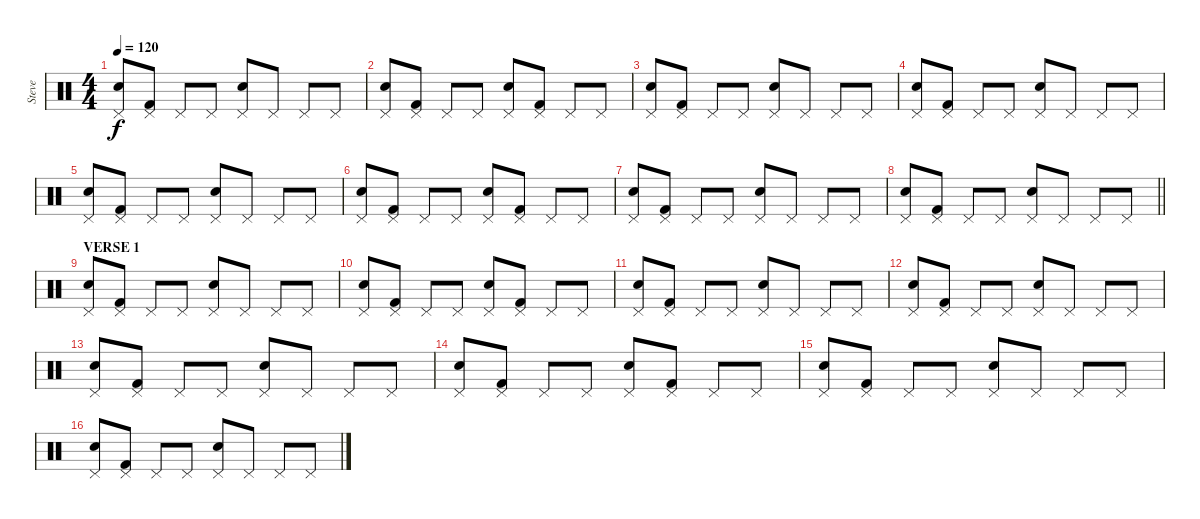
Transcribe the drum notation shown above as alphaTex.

\track ("Steve" "Steve") {instrument percussion}
\staff {score}
\articulation defaults
\ts (4 4)
\tempo 120
\clef neutral
\ks c
("Pedal Hi-Hat (hit)" "Electric Snare (hit)").8{dy f} ("Pedal Hi-Hat (hit)" "Kick (hit) 2").8 "Pedal Hi-Hat (hit)".8 "Pedal Hi-Hat (hit)".8 ("Pedal Hi-Hat (hit)" "Electric Snare (hit)").8 "Pedal Hi-Hat (hit)".8 "Pedal Hi-Hat (hit)".8 "Pedal Hi-Hat (hit)".8 |
("Pedal Hi-Hat (hit)" "Electric Snare (hit)").8 ("Pedal Hi-Hat (hit)" "Kick (hit) 2").8 "Pedal Hi-Hat (hit)".8 "Pedal Hi-Hat (hit)".8 ("Pedal Hi-Hat (hit)" "Electric Snare (hit)").8 ("Pedal Hi-Hat (hit)" "Kick (hit) 2").8 "Pedal Hi-Hat (hit)".8 "Pedal Hi-Hat (hit)".8 |
("Pedal Hi-Hat (hit)" "Electric Snare (hit)").8 ("Pedal Hi-Hat (hit)" "Kick (hit) 2").8 "Pedal Hi-Hat (hit)".8 "Pedal Hi-Hat (hit)".8 ("Pedal Hi-Hat (hit)" "Electric Snare (hit)").8 "Pedal Hi-Hat (hit)".8 "Pedal Hi-Hat (hit)".8 "Pedal Hi-Hat (hit)".8 |
("Pedal Hi-Hat (hit)" "Electric Snare (hit)").8 ("Pedal Hi-Hat (hit)" "Kick (hit) 2").8 "Pedal Hi-Hat (hit)".8 "Pedal Hi-Hat (hit)".8 ("Pedal Hi-Hat (hit)" "Electric Snare (hit)").8 "Pedal Hi-Hat (hit)".8 "Pedal Hi-Hat (hit)".8 "Pedal Hi-Hat (hit)".8 |
("Pedal Hi-Hat (hit)" "Electric Snare (hit)").8 ("Pedal Hi-Hat (hit)" "Kick (hit) 2").8 "Pedal Hi-Hat (hit)".8 "Pedal Hi-Hat (hit)".8 ("Pedal Hi-Hat (hit)" "Electric Snare (hit)").8 "Pedal Hi-Hat (hit)".8 "Pedal Hi-Hat (hit)".8 "Pedal Hi-Hat (hit)".8 |
("Pedal Hi-Hat (hit)" "Electric Snare (hit)").8 ("Pedal Hi-Hat (hit)" "Kick (hit) 2").8 "Pedal Hi-Hat (hit)".8 "Pedal Hi-Hat (hit)".8 ("Pedal Hi-Hat (hit)" "Electric Snare (hit)").8 ("Pedal Hi-Hat (hit)" "Kick (hit) 2").8 "Pedal Hi-Hat (hit)".8 "Pedal Hi-Hat (hit)".8 |
("Pedal Hi-Hat (hit)" "Electric Snare (hit)").8 ("Pedal Hi-Hat (hit)" "Kick (hit) 2").8 "Pedal Hi-Hat (hit)".8 "Pedal Hi-Hat (hit)".8 ("Pedal Hi-Hat (hit)" "Electric Snare (hit)").8 "Pedal Hi-Hat (hit)".8 "Pedal Hi-Hat (hit)".8 "Pedal Hi-Hat (hit)".8 |
\barLineRight lightlight
("Pedal Hi-Hat (hit)" "Electric Snare (hit)").8 ("Pedal Hi-Hat (hit)" "Kick (hit) 2").8 "Pedal Hi-Hat (hit)".8 "Pedal Hi-Hat (hit)".8 ("Pedal Hi-Hat (hit)" "Electric Snare (hit)").8 "Pedal Hi-Hat (hit)".8 "Pedal Hi-Hat (hit)".8 "Pedal Hi-Hat (hit)".8 |
\section ("" "VERSE 1")
("Pedal Hi-Hat (hit)" "Electric Snare (hit)").8 ("Pedal Hi-Hat (hit)" "Kick (hit) 2").8 "Pedal Hi-Hat (hit)".8 "Pedal Hi-Hat (hit)".8 ("Pedal Hi-Hat (hit)" "Electric Snare (hit)").8 "Pedal Hi-Hat (hit)".8 "Pedal Hi-Hat (hit)".8 "Pedal Hi-Hat (hit)".8 |
("Pedal Hi-Hat (hit)" "Electric Snare (hit)").8 ("Pedal Hi-Hat (hit)" "Kick (hit) 2").8 "Pedal Hi-Hat (hit)".8 "Pedal Hi-Hat (hit)".8 ("Pedal Hi-Hat (hit)" "Electric Snare (hit)").8 ("Pedal Hi-Hat (hit)" "Kick (hit) 2").8 "Pedal Hi-Hat (hit)".8 "Pedal Hi-Hat (hit)".8 |
("Pedal Hi-Hat (hit)" "Electric Snare (hit)").8 ("Pedal Hi-Hat (hit)" "Kick (hit) 2").8 "Pedal Hi-Hat (hit)".8 "Pedal Hi-Hat (hit)".8 ("Pedal Hi-Hat (hit)" "Electric Snare (hit)").8 "Pedal Hi-Hat (hit)".8 "Pedal Hi-Hat (hit)".8 "Pedal Hi-Hat (hit)".8 |
("Pedal Hi-Hat (hit)" "Electric Snare (hit)").8 ("Pedal Hi-Hat (hit)" "Kick (hit) 2").8 "Pedal Hi-Hat (hit)".8 "Pedal Hi-Hat (hit)".8 ("Pedal Hi-Hat (hit)" "Electric Snare (hit)").8 "Pedal Hi-Hat (hit)".8 "Pedal Hi-Hat (hit)".8 "Pedal Hi-Hat (hit)".8 |
("Pedal Hi-Hat (hit)" "Electric Snare (hit)").8 ("Pedal Hi-Hat (hit)" "Kick (hit) 2").8 "Pedal Hi-Hat (hit)".8 "Pedal Hi-Hat (hit)".8 ("Pedal Hi-Hat (hit)" "Electric Snare (hit)").8 "Pedal Hi-Hat (hit)".8 "Pedal Hi-Hat (hit)".8 "Pedal Hi-Hat (hit)".8 |
("Pedal Hi-Hat (hit)" "Electric Snare (hit)").8 ("Pedal Hi-Hat (hit)" "Kick (hit) 2").8 "Pedal Hi-Hat (hit)".8 "Pedal Hi-Hat (hit)".8 ("Pedal Hi-Hat (hit)" "Electric Snare (hit)").8 ("Pedal Hi-Hat (hit)" "Kick (hit) 2").8 "Pedal Hi-Hat (hit)".8 "Pedal Hi-Hat (hit)".8 |
("Pedal Hi-Hat (hit)" "Electric Snare (hit)").8 ("Pedal Hi-Hat (hit)" "Kick (hit) 2").8 "Pedal Hi-Hat (hit)".8 "Pedal Hi-Hat (hit)".8 ("Pedal Hi-Hat (hit)" "Electric Snare (hit)").8 "Pedal Hi-Hat (hit)".8 "Pedal Hi-Hat (hit)".8 "Pedal Hi-Hat (hit)".8 |
("Pedal Hi-Hat (hit)" "Electric Snare (hit)").8 ("Pedal Hi-Hat (hit)" "Kick (hit) 2").8 "Pedal Hi-Hat (hit)".8 "Pedal Hi-Hat (hit)".8 ("Pedal Hi-Hat (hit)" "Electric Snare (hit)").8 "Pedal Hi-Hat (hit)".8 "Pedal Hi-Hat (hit)".8 "Pedal Hi-Hat (hit)".8
